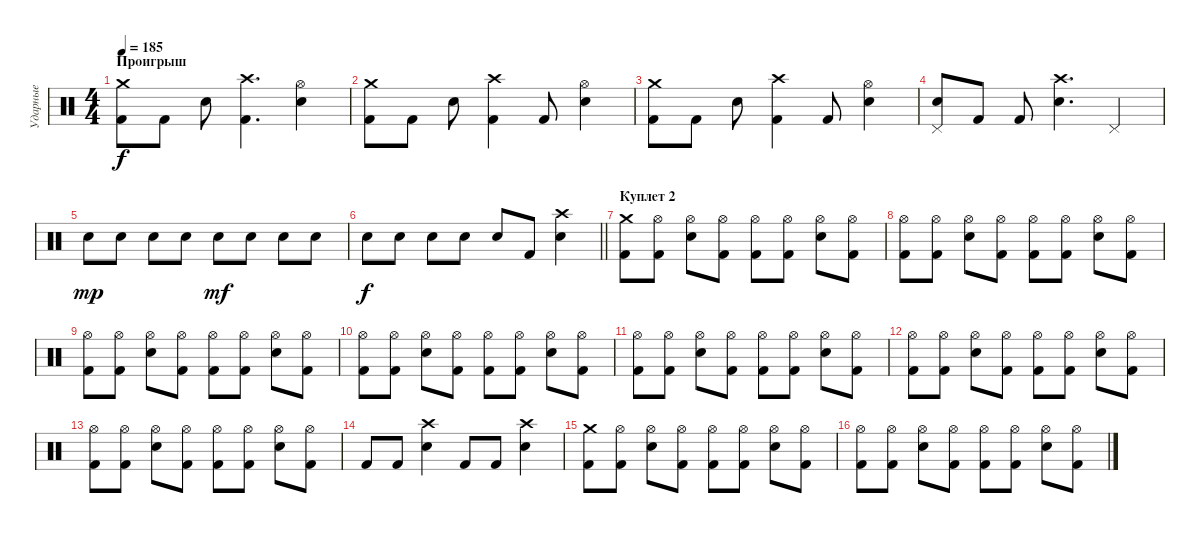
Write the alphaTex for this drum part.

\track ("Ударные" "Ударные") {instrument percussion}
\staff {score}
\articulation defaults
\ts (4 4)
\section ("" "Проигрыш")
\tempo 185
\clef neutral
\ks c
("Crash medium (hit)" "Kick (hit) 2").8{dy f} "Kick (hit) 2".8 "Electric Snare (hit)".8 ("Crash high (hit)" "Kick (hit) 2").4{d} ("Hi-Hat (open)" "Electric Snare (hit)").4 |
("Crash medium (hit)" "Kick (hit) 2").8 "Kick (hit) 2".8 "Electric Snare (hit)".8 ("Crash high (hit)" "Kick (hit) 2").4 "Kick (hit) 2".8 ("Hi-Hat (open)" "Electric Snare (hit)").4 |
("Crash medium (hit)" "Kick (hit) 2").8 "Kick (hit) 2".8 "Electric Snare (hit)".8 ("Crash high (hit)" "Kick (hit) 2").4 "Kick (hit) 2".8 ("Hi-Hat (open)" "Electric Snare (hit)").4 |
("Pedal Hi-Hat (hit)" "Electric Snare (hit)").8 "Kick (hit) 2".8 "Kick (hit) 2".8 ("Crash high (hit)" "Electric Snare (hit)").4{d} "Pedal Hi-Hat (hit)".4 |
"Electric Snare (hit)".8{dy mp} "Electric Snare (hit)".8 "Electric Snare (hit)".8 "Electric Snare (hit)".8 "Electric Snare (hit)".8{dy mf} "Electric Snare (hit)".8 "Electric Snare (hit)".8 "Electric Snare (hit)".8 |
\barLineRight lightlight "Electric Snare (hit)".8{dy f} "Electric Snare (hit)".8 "Electric Snare (hit)".8 "Electric Snare (hit)".8 "Electric Snare (hit)".8 "Kick (hit) 2".8
("Crash high (hit)" "Electric Snare (hit)").4 |
\section ("" "Куплет 2")
("Crash medium (hit)" "Kick (hit) 2").8 ("Hi-Hat (open)" "Kick (hit) 2").8 ("Hi-Hat (open)" "Electric Snare (hit)").8 ("Hi-Hat (open)" "Kick (hit) 2").8 ("Hi-Hat (open)" "Kick (hit) 2").8 ("Hi-Hat (open)" "Kick (hit) 2").8 ("Hi-Hat (open)" "Electric Snare (hit)").8 ("Hi-Hat (open)" "Kick (hit) 2").8 |
("Hi-Hat (open)" "Kick (hit) 2").8 ("Hi-Hat (open)" "Kick (hit) 2").8 ("Hi-Hat (open)" "Electric Snare (hit)").8 ("Hi-Hat (open)" "Kick (hit) 2").8 ("Hi-Hat (open)" "Kick (hit) 2").8 ("Hi-Hat (open)" "Kick (hit) 2").8 ("Hi-Hat (open)" "Electric Snare (hit)").8 ("Hi-Hat (open)" "Kick (hit) 2").8 |
("Hi-Hat (open)" "Kick (hit) 2").8 ("Hi-Hat (open)" "Kick (hit) 2").8 ("Hi-Hat (open)" "Electric Snare (hit)").8 ("Hi-Hat (open)" "Kick (hit) 2").8 ("Hi-Hat (open)" "Kick (hit) 2").8 ("Hi-Hat (open)" "Kick (hit) 2").8 ("Hi-Hat (open)" "Electric Snare (hit)").8 ("Hi-Hat (open)" "Kick (hit) 2").8 |
("Hi-Hat (open)" "Kick (hit) 2").8 ("Hi-Hat (open)" "Kick (hit) 2").8 ("Hi-Hat (open)" "Electric Snare (hit)").8 ("Hi-Hat (open)" "Kick (hit) 2").8 ("Hi-Hat (open)" "Kick (hit) 2").8 ("Hi-Hat (open)" "Kick (hit) 2").8 ("Hi-Hat (open)" "Electric Snare (hit)").8 ("Hi-Hat (open)" "Kick (hit) 2").8 |
("Hi-Hat (open)" "Kick (hit) 2").8 ("Hi-Hat (open)" "Kick (hit) 2").8 ("Hi-Hat (open)" "Electric Snare (hit)").8 ("Hi-Hat (open)" "Kick (hit) 2").8 ("Hi-Hat (open)" "Kick (hit) 2").8 ("Hi-Hat (open)" "Kick (hit) 2").8 ("Hi-Hat (open)" "Electric Snare (hit)").8 ("Hi-Hat (open)" "Kick (hit) 2").8 |
("Hi-Hat (open)" "Kick (hit) 2").8 ("Hi-Hat (open)" "Kick (hit) 2").8 ("Hi-Hat (open)" "Electric Snare (hit)").8 ("Hi-Hat (open)" "Kick (hit) 2").8 ("Hi-Hat (open)" "Kick (hit) 2").8 ("Hi-Hat (open)" "Kick (hit) 2").8 ("Hi-Hat (open)" "Electric Snare (hit)").8 ("Hi-Hat (open)" "Kick (hit) 2").8 |
("Hi-Hat (open)" "Kick (hit) 2").8 ("Hi-Hat (open)" "Kick (hit) 2").8 ("Hi-Hat (open)" "Electric Snare (hit)").8 ("Hi-Hat (open)" "Kick (hit) 2").8 ("Hi-Hat (open)" "Kick (hit) 2").8 ("Hi-Hat (open)" "Kick (hit) 2").8 ("Hi-Hat (open)" "Electric Snare (hit)").8 ("Hi-Hat (open)" "Kick (hit) 2").8 |
"Kick (hit) 2".8 "Kick (hit) 2".8 ("Crash high (hit)" "Electric Snare (hit)").4 "Kick (hit) 2".8 "Kick (hit) 2".8 ("Crash high (hit)" "Electric Snare (hit)").4 |
("Crash medium (hit)" "Kick (hit) 2").8 ("Hi-Hat (open)" "Kick (hit) 2").8 ("Hi-Hat (open)" "Electric Snare (hit)").8 ("Hi-Hat (open)" "Kick (hit) 2").8 ("Hi-Hat (open)" "Kick (hit) 2").8 ("Hi-Hat (open)" "Kick (hit) 2").8 ("Hi-Hat (open)" "Electric Snare (hit)").8 ("Hi-Hat (open)" "Kick (hit) 2").8 |
("Hi-Hat (open)" "Kick (hit) 2").8 ("Hi-Hat (open)" "Kick (hit) 2").8 ("Hi-Hat (open)" "Electric Snare (hit)").8 ("Hi-Hat (open)" "Kick (hit) 2").8 ("Hi-Hat (open)" "Kick (hit) 2").8 ("Hi-Hat (open)" "Kick (hit) 2").8 ("Hi-Hat (open)" "Electric Snare (hit)").8 ("Hi-Hat (open)" "Kick (hit) 2").8
